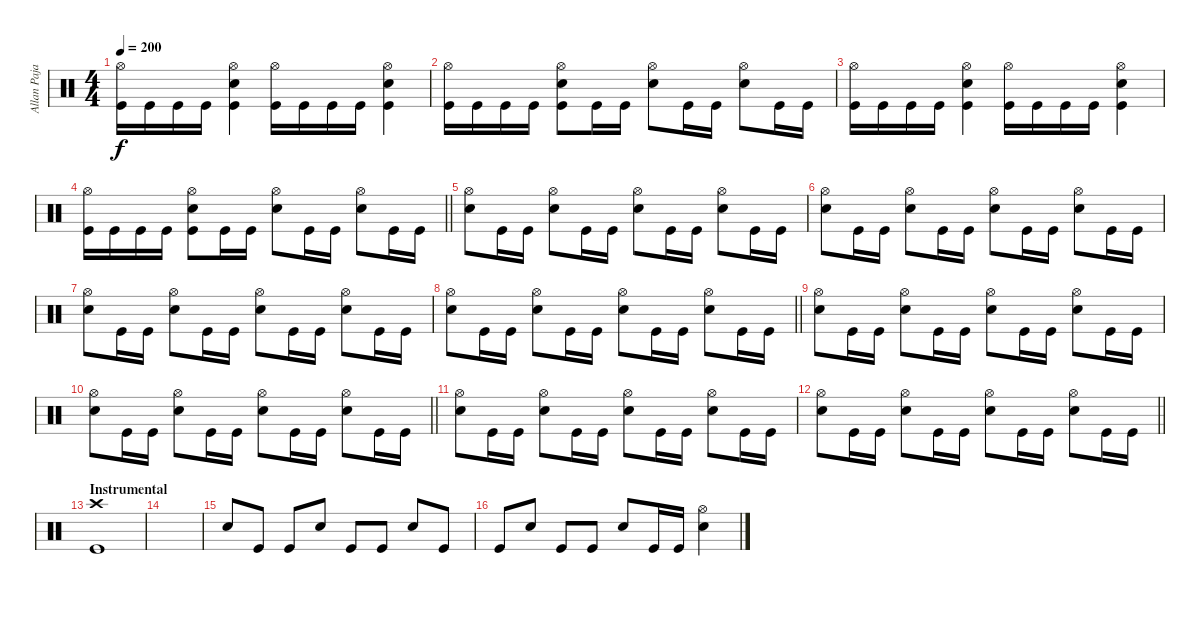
\track ("Allan Pajarin (Drums)" "Allan Paja") {instrument percussion}
\staff {score}
\articulation defaults
\ts (4 4)
\tempo 200
\clef neutral
\ks c
("Hi-Hat (open)" "Kick (hit)").16{dy f} "Kick (hit)".16 "Kick (hit)".16 "Kick (hit)".16 ("Hi-Hat (open)" "Electric Snare (hit)" "Kick (hit)").4 ("Hi-Hat (open)" "Kick (hit)").16 "Kick (hit)".16 "Kick (hit)".16 "Kick (hit)".16 ("Hi-Hat (open)" "Electric Snare (hit)" "Kick (hit)").4 |
("Hi-Hat (open)" "Kick (hit)").16 "Kick (hit)".16 "Kick (hit)".16 "Kick (hit)".16 ("Hi-Hat (open)" "Electric Snare (hit)" "Kick (hit)").8 "Kick (hit)".16 "Kick (hit)".16 ("Hi-Hat (open)" "Electric Snare (hit)").8 "Kick (hit)".16 "Kick (hit)".16 ("Hi-Hat (open)" "Electric Snare (hit)").8 "Kick (hit)".16 "Kick (hit)".16 |
("Hi-Hat (open)" "Kick (hit)").16 "Kick (hit)".16 "Kick (hit)".16 "Kick (hit)".16 ("Hi-Hat (open)" "Electric Snare (hit)" "Kick (hit)").4 ("Hi-Hat (open)" "Kick (hit)").16 "Kick (hit)".16 "Kick (hit)".16 "Kick (hit)".16 ("Hi-Hat (open)" "Electric Snare (hit)" "Kick (hit)").4 |
\barLineRight lightlight
("Hi-Hat (open)" "Kick (hit)").16 "Kick (hit)".16 "Kick (hit)".16 "Kick (hit)".16 ("Hi-Hat (open)" "Electric Snare (hit)" "Kick (hit)").8 "Kick (hit)".16 "Kick (hit)".16 ("Hi-Hat (open)" "Electric Snare (hit)").8 "Kick (hit)".16 "Kick (hit)".16 ("Hi-Hat (open)" "Electric Snare (hit)").8 "Kick (hit)".16 "Kick (hit)".16 |
("Electric Snare (hit)" "Hi-Hat (open)").8 "Kick (hit)".16 "Kick (hit)".16 ("Electric Snare (hit)" "Hi-Hat (open)").8 "Kick (hit)".16 "Kick (hit)".16 ("Electric Snare (hit)" "Hi-Hat (open)").8 "Kick (hit)".16 "Kick (hit)".16 ("Electric Snare (hit)" "Hi-Hat (open)").8 "Kick (hit)".16 "Kick (hit)".16 |
("Electric Snare (hit)" "Hi-Hat (open)").8 "Kick (hit)".16 "Kick (hit)".16 ("Electric Snare (hit)" "Hi-Hat (open)").8 "Kick (hit)".16 "Kick (hit)".16 ("Electric Snare (hit)" "Hi-Hat (open)").8 "Kick (hit)".16 "Kick (hit)".16 ("Electric Snare (hit)" "Hi-Hat (open)").8 "Kick (hit)".16 "Kick (hit)".16 |
("Electric Snare (hit)" "Hi-Hat (open)").8 "Kick (hit)".16 "Kick (hit)".16 ("Electric Snare (hit)" "Hi-Hat (open)").8 "Kick (hit)".16 "Kick (hit)".16 ("Electric Snare (hit)" "Hi-Hat (open)").8 "Kick (hit)".16 "Kick (hit)".16 ("Electric Snare (hit)" "Hi-Hat (open)").8 "Kick (hit)".16 "Kick (hit)".16 |
\barLineRight lightlight
("Electric Snare (hit)" "Hi-Hat (open)").8 "Kick (hit)".16 "Kick (hit)".16 ("Electric Snare (hit)" "Hi-Hat (open)").8 "Kick (hit)".16 "Kick (hit)".16 ("Electric Snare (hit)" "Hi-Hat (open)").8 "Kick (hit)".16 "Kick (hit)".16 ("Electric Snare (hit)" "Hi-Hat (open)").8 "Kick (hit)".16 "Kick (hit)".16 |
("Electric Snare (hit)" "Hi-Hat (open)").8 "Kick (hit)".16 "Kick (hit)".16 ("Electric Snare (hit)" "Hi-Hat (open)").8 "Kick (hit)".16 "Kick (hit)".16 ("Electric Snare (hit)" "Hi-Hat (open)").8 "Kick (hit)".16 "Kick (hit)".16 ("Electric Snare (hit)" "Hi-Hat (open)").8 "Kick (hit)".16 "Kick (hit)".16 |
\barLineRight lightlight
("Electric Snare (hit)" "Hi-Hat (open)").8 "Kick (hit)".16 "Kick (hit)".16 ("Electric Snare (hit)" "Hi-Hat (open)").8 "Kick (hit)".16 "Kick (hit)".16 ("Electric Snare (hit)" "Hi-Hat (open)").8 "Kick (hit)".16 "Kick (hit)".16 ("Electric Snare (hit)" "Hi-Hat (open)").8 "Kick (hit)".16 "Kick (hit)".16 |
("Electric Snare (hit)" "Hi-Hat (open)").8 "Kick (hit)".16 "Kick (hit)".16 ("Electric Snare (hit)" "Hi-Hat (open)").8 "Kick (hit)".16 "Kick (hit)".16 ("Electric Snare (hit)" "Hi-Hat (open)").8 "Kick (hit)".16 "Kick (hit)".16 ("Electric Snare (hit)" "Hi-Hat (open)").8 "Kick (hit)".16 "Kick (hit)".16 |
\barLineRight lightlight
("Electric Snare (hit)" "Hi-Hat (open)").8 "Kick (hit)".16 "Kick (hit)".16 ("Electric Snare (hit)" "Hi-Hat (open)").8 "Kick (hit)".16 "Kick (hit)".16 ("Electric Snare (hit)" "Hi-Hat (open)").8 "Kick (hit)".16 "Kick (hit)".16 ("Electric Snare (hit)" "Hi-Hat (open)").8 "Kick (hit)".16 "Kick (hit)".16 |
\section ("" "Instrumental")
("Crash high (hit)" "Kick (hit)").1 |
|
"Electric Snare (hit)".8 "Kick (hit)".8 "Kick (hit)".8 "Electric Snare (hit)".8 "Kick (hit)".8 "Kick (hit)".8 "Electric Snare (hit)".8 "Kick (hit)".8 |
"Kick (hit)".8 "Electric Snare (hit)".8 "Kick (hit)".8 "Kick (hit)".8 "Electric Snare (hit)".8 "Kick (hit)".16 "Kick (hit)".16 ("Hi-Hat (open)" "Electric Snare (hit)").4
